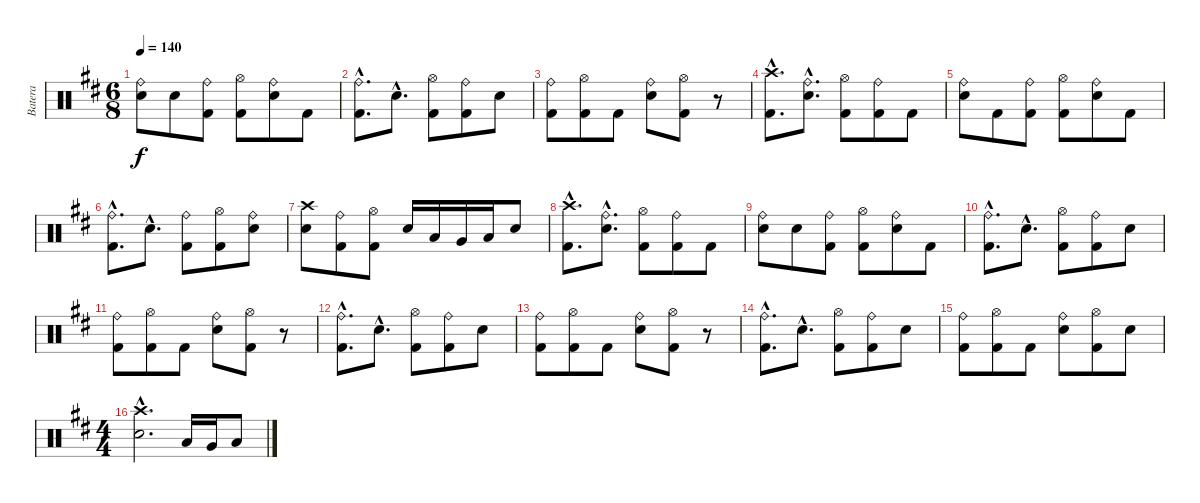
\track ("Batera" "Batera") {instrument percussion}
\staff {score}
\articulation defaults
\ts (6 8)
\tempo 140
\clef neutral
\ks bminor
("Ride (bell)" "Electric Snare (hit)").8{dy f} "Electric Snare (hit)".8 ("Ride (bell)" "Kick (hit) 2").8 ("Hi-Hat (open)" "Kick (hit) 2").8 ("Ride (bell)" "Electric Snare (hit)").8 "Kick (hit) 2".8 |
("Ride (bell)"{hac} "Kick (hit) 2"{hac}).8{d} "Electric Snare (hit)"{hac}.8{d} ("Hi-Hat (open)" "Kick (hit) 2").8 ("Ride (bell)" "Kick (hit) 2").8 "Electric Snare (hit)".8 |
("Ride (bell)" "Kick (hit) 2").8 ("Hi-Hat (open)" "Kick (hit) 2").8 "Kick (hit) 2".8 ("Ride (bell)" "Electric Snare (hit)").8 ("Hi-Hat (open)" "Kick (hit) 2").8 r.8 |
("Crash high (hit)"{hac} "Kick (hit) 2"{hac}).8{d} ("Ride (bell)"{hac} "Electric Snare (hit)"{hac}).8{d} ("Hi-Hat (open)" "Kick (hit) 2").8 ("Ride (bell)" "Kick (hit) 2").8 "Kick (hit) 2".8 |
("Ride (bell)" "Electric Snare (hit)").8 "Kick (hit) 2".8 ("Ride (bell)" "Kick (hit) 2").8 ("Hi-Hat (open)" "Kick (hit) 2").8 ("Ride (bell)" "Electric Snare (hit)").8 "Kick (hit) 2".8 |
("Ride (bell)"{hac} "Kick (hit) 2"{hac}).8{d} "Electric Snare (hit)"{hac}.8{d} ("Ride (bell)" "Kick (hit) 2").8 ("Hi-Hat (open)" "Kick (hit) 2").8 ("Ride (bell)" "Electric Snare (hit)").8 |
("Crash high (hit)" "Electric Snare (hit)").8 ("Ride (bell)" "Kick (hit) 2").8 ("Hi-Hat (open)" "Kick (hit) 2").8 "Electric Snare (hit)".16 "Low Floor Tom (hit)".16 "Very Low Tom (hit)".16 "Low Floor Tom (hit)".16 "Electric Snare (hit)".8 |
("Crash high (hit)"{hac} "Kick (hit) 2"{hac}).8{d} ("Ride (bell)"{hac} "Electric Snare (hit)"{hac}).8{d} ("Hi-Hat (open)" "Kick (hit) 2").8 ("Ride (bell)" "Kick (hit) 2").8 "Kick (hit) 2".8 |
("Ride (bell)" "Electric Snare (hit)").8 "Electric Snare (hit)".8 ("Ride (bell)" "Kick (hit) 2").8 ("Hi-Hat (open)" "Kick (hit) 2").8 ("Ride (bell)" "Electric Snare (hit)").8 "Kick (hit) 2".8 |
("Ride (bell)"{hac} "Kick (hit) 2"{hac}).8{d} "Electric Snare (hit)"{hac}.8{d} ("Hi-Hat (open)" "Kick (hit) 2").8 ("Ride (bell)" "Kick (hit) 2").8 "Electric Snare (hit)".8 |
("Ride (bell)" "Kick (hit) 2").8 ("Hi-Hat (open)" "Kick (hit) 2").8 "Kick (hit) 2".8 ("Ride (bell)" "Electric Snare (hit)").8 ("Hi-Hat (open)" "Kick (hit) 2").8 r.8 |
("Ride (bell)"{hac} "Kick (hit) 2"{hac}).8{d} "Electric Snare (hit)"{hac}.8{d} ("Hi-Hat (open)" "Kick (hit) 2").8 ("Ride (bell)" "Kick (hit) 2").8 "Electric Snare (hit)".8 |
("Ride (bell)" "Kick (hit) 2").8 ("Hi-Hat (open)" "Kick (hit) 2").8 "Kick (hit) 2".8 ("Ride (bell)" "Electric Snare (hit)").8 ("Hi-Hat (open)" "Kick (hit) 2").8 r.8 |
("Ride (bell)"{hac} "Kick (hit) 2"{hac}).8{d} "Electric Snare (hit)"{hac}.8{d} ("Hi-Hat (open)" "Kick (hit) 2").8 ("Ride (bell)" "Kick (hit) 2").8 "Electric Snare (hit)".8 |
("Ride (bell)" "Kick (hit) 2").8 ("Hi-Hat (open)" "Kick (hit) 2").8 "Kick (hit) 2".8 ("Ride (bell)" "Electric Snare (hit)").8 ("Hi-Hat (open)" "Kick (hit) 2").8 "Electric Snare (hit)".8 |
\ts (4 4)
("Crash high (hit)"{hac} "Electric Snare (hit)"{hac}).2{d} "Low Floor Tom (hit)".16 "Very Low Tom (hit)".16 "Low Floor Tom (hit)".8
